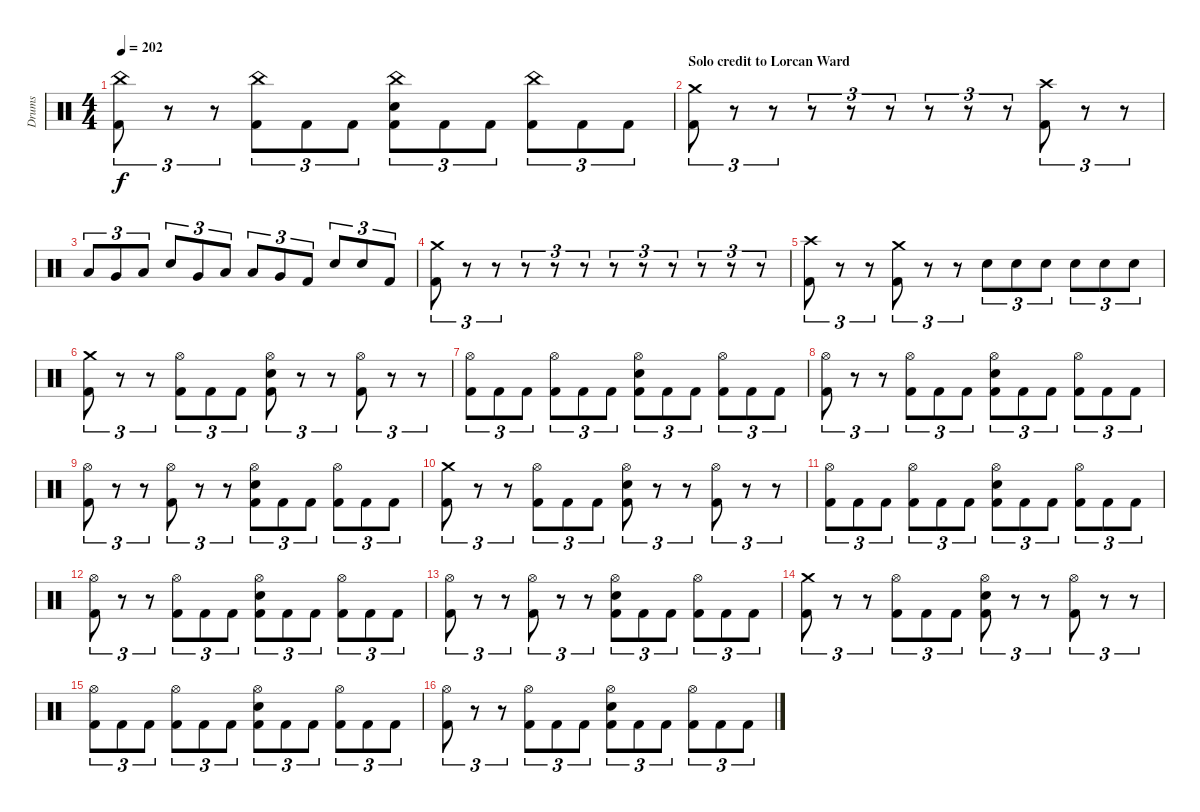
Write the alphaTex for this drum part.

\track ("Drums" "Drums") {instrument percussion}
\staff {score}
\articulation defaults
\ts (4 4)
\tempo 202
\clef neutral
\ks c
("China (hit)" "Kick (hit) 2").8{tu (3 2) dy f} r.8{tu (3 2)} r.8{tu (3 2)} ("China (hit)" "Kick (hit) 2").8{tu (3 2)} "Kick (hit) 2".8{tu (3 2)} "Kick (hit) 2".8{tu (3 2)} ("China (hit)" "Electric Snare (hit)" "Kick (hit) 2").8{tu (3 2)} "Kick (hit) 2".8{tu (3 2)} "Kick (hit) 2".8{tu (3 2)} ("China (hit)" "Kick (hit) 2").8{tu (3 2)} "Kick (hit) 2".8{tu (3 2)} "Kick (hit) 2".8{tu (3 2)} |
\section ("" "Solo credit to Lorcan Ward")
("Crash medium (hit)" "Kick (hit) 2").8{tu (3 2)} r.8{tu (3 2)} r.8{tu (3 2)} r.8{tu (3 2)} r.8{tu (3 2)} r.8{tu (3 2)} r.8{tu (3 2)} r.8{tu (3 2)} r.8{tu (3 2)} ("Crash high (hit)" "Kick (hit) 2").8{tu (3 2)} r.8{tu (3 2)} r.8{tu (3 2)} |
"Low Tom (hit)".8{tu (3 2)} "Very Low Tom (hit)".8{tu (3 2)} "Low Floor Tom (hit)".8{tu (3 2)} "Electric Snare (hit)".8{tu (3 2)} "Very Low Tom (hit)".8{tu (3 2)} "Low Floor Tom (hit)".8{tu (3 2)} "Low Tom (hit)".8{tu (3 2)} "Very Low Tom (hit)".8{tu (3 2)} "Kick (hit) 2".8{tu (3 2)} "Electric Snare (hit)".8{tu (3 2)} "Electric Snare (hit)".8{tu (3 2)} "Kick (hit) 2".8{tu (3 2)} |
("Crash medium (hit)" "Kick (hit) 2").8{tu (3 2)} r.8{tu (3 2)} r.8{tu (3 2)} r.8{tu (3 2)} r.8{tu (3 2)} r.8{tu (3 2)} r.8{tu (3 2)} r.8{tu (3 2)} r.8{tu (3 2)} r.8{tu (3 2)} r.8{tu (3 2)} r.8{tu (3 2)} |
("Crash high (hit)" "Kick (hit) 2").8{tu (3 2)} r.8{tu (3 2)} r.8{tu (3 2)} ("Crash medium (hit)" "Kick (hit) 2").8{tu (3 2)} r.8{tu (3 2)} r.8{tu (3 2)} "Electric Snare (hit)".8{tu (3 2)} "Electric Snare (hit)".8{tu (3 2)} "Electric Snare (hit)".8{tu (3 2)} "Electric Snare (hit)".8{tu (3 2)} "Electric Snare (hit)".8{tu (3 2)} "Electric Snare (hit)".8{tu (3 2)} |
("Crash medium (hit)" "Kick (hit) 2").8{tu (3 2)} r.8{tu (3 2)} r.8{tu (3 2)} ("Hi-Hat (open)" "Kick (hit) 2").8{tu (3 2)} "Kick (hit) 2".8{tu (3 2)} "Kick (hit) 2".8{tu (3 2)} ("Hi-Hat (open)" "Electric Snare (hit)" "Kick (hit) 2").8{tu (3 2)} r.8{tu (3 2)} r.8{tu (3 2)} ("Hi-Hat (open)" "Kick (hit) 2").8{tu (3 2)} r.8{tu (3 2)} r.8{tu (3 2)} |
("Hi-Hat (open)" "Kick (hit) 2").8{tu (3 2)} "Kick (hit) 2".8{tu (3 2)} "Kick (hit) 2".8{tu (3 2)} ("Hi-Hat (open)" "Kick (hit) 2").8{tu (3 2)} "Kick (hit) 2".8{tu (3 2)} "Kick (hit) 2".8{tu (3 2)} ("Hi-Hat (open)" "Electric Snare (hit)" "Kick (hit) 2").8{tu (3 2)} "Kick (hit) 2".8{tu (3 2)} "Kick (hit) 2".8{tu (3 2)} ("Hi-Hat (open)" "Kick (hit) 2").8{tu (3 2)} "Kick (hit) 2".8{tu (3 2)} "Kick (hit) 2".8{tu (3 2)} |
("Hi-Hat (open)" "Kick (hit) 2").8{tu (3 2)} r.8{tu (3 2)} r.8{tu (3 2)} ("Hi-Hat (open)" "Kick (hit) 2").8{tu (3 2)} "Kick (hit) 2".8{tu (3 2)} "Kick (hit) 2".8{tu (3 2)} ("Hi-Hat (open)" "Electric Snare (hit)" "Kick (hit) 2").8{tu (3 2)} "Kick (hit) 2".8{tu (3 2)} "Kick (hit) 2".8{tu (3 2)} ("Hi-Hat (open)" "Kick (hit) 2").8{tu (3 2)} "Kick (hit) 2".8{tu (3 2)} "Kick (hit) 2".8{tu (3 2)} |
("Hi-Hat (open)" "Kick (hit) 2").8{tu (3 2)} r.8{tu (3 2)} r.8{tu (3 2)} ("Hi-Hat (open)" "Kick (hit) 2").8{tu (3 2)} r.8{tu (3 2)} r.8{tu (3 2)} ("Hi-Hat (open)" "Electric Snare (hit)" "Kick (hit) 2").8{tu (3 2)} "Kick (hit) 2".8{tu (3 2)} "Kick (hit) 2".8{tu (3 2)} ("Hi-Hat (open)" "Kick (hit) 2").8{tu (3 2)} "Kick (hit) 2".8{tu (3 2)} "Kick (hit) 2".8{tu (3 2)} |
("Crash medium (hit)" "Kick (hit) 2").8{tu (3 2)} r.8{tu (3 2)} r.8{tu (3 2)} ("Hi-Hat (open)" "Kick (hit) 2").8{tu (3 2)} "Kick (hit) 2".8{tu (3 2)} "Kick (hit) 2".8{tu (3 2)} ("Hi-Hat (open)" "Electric Snare (hit)" "Kick (hit) 2").8{tu (3 2)} r.8{tu (3 2)} r.8{tu (3 2)} ("Hi-Hat (open)" "Kick (hit) 2").8{tu (3 2)} r.8{tu (3 2)} r.8{tu (3 2)} |
("Hi-Hat (open)" "Kick (hit) 2").8{tu (3 2)} "Kick (hit) 2".8{tu (3 2)} "Kick (hit) 2".8{tu (3 2)} ("Hi-Hat (open)" "Kick (hit) 2").8{tu (3 2)} "Kick (hit) 2".8{tu (3 2)} "Kick (hit) 2".8{tu (3 2)} ("Hi-Hat (open)" "Electric Snare (hit)" "Kick (hit) 2").8{tu (3 2)} "Kick (hit) 2".8{tu (3 2)} "Kick (hit) 2".8{tu (3 2)} ("Hi-Hat (open)" "Kick (hit) 2").8{tu (3 2)} "Kick (hit) 2".8{tu (3 2)} "Kick (hit) 2".8{tu (3 2)} |
("Hi-Hat (open)" "Kick (hit) 2").8{tu (3 2)} r.8{tu (3 2)} r.8{tu (3 2)} ("Hi-Hat (open)" "Kick (hit) 2").8{tu (3 2)} "Kick (hit) 2".8{tu (3 2)} "Kick (hit) 2".8{tu (3 2)} ("Hi-Hat (open)" "Electric Snare (hit)" "Kick (hit) 2").8{tu (3 2)} "Kick (hit) 2".8{tu (3 2)} "Kick (hit) 2".8{tu (3 2)} ("Hi-Hat (open)" "Kick (hit) 2").8{tu (3 2)} "Kick (hit) 2".8{tu (3 2)} "Kick (hit) 2".8{tu (3 2)} |
("Hi-Hat (open)" "Kick (hit) 2").8{tu (3 2)} r.8{tu (3 2)} r.8{tu (3 2)} ("Hi-Hat (open)" "Kick (hit) 2").8{tu (3 2)} r.8{tu (3 2)} r.8{tu (3 2)} ("Hi-Hat (open)" "Electric Snare (hit)" "Kick (hit) 2").8{tu (3 2)} "Kick (hit) 2".8{tu (3 2)} "Kick (hit) 2".8{tu (3 2)} ("Hi-Hat (open)" "Kick (hit) 2").8{tu (3 2)} "Kick (hit) 2".8{tu (3 2)} "Kick (hit) 2".8{tu (3 2)} |
("Crash medium (hit)" "Kick (hit) 2").8{tu (3 2)} r.8{tu (3 2)} r.8{tu (3 2)} ("Hi-Hat (open)" "Kick (hit) 2").8{tu (3 2)} "Kick (hit) 2".8{tu (3 2)} "Kick (hit) 2".8{tu (3 2)} ("Hi-Hat (open)" "Electric Snare (hit)" "Kick (hit) 2").8{tu (3 2)} r.8{tu (3 2)} r.8{tu (3 2)} ("Hi-Hat (open)" "Kick (hit) 2").8{tu (3 2)} r.8{tu (3 2)} r.8{tu (3 2)} |
("Hi-Hat (open)" "Kick (hit) 2").8{tu (3 2)} "Kick (hit) 2".8{tu (3 2)} "Kick (hit) 2".8{tu (3 2)} ("Hi-Hat (open)" "Kick (hit) 2").8{tu (3 2)} "Kick (hit) 2".8{tu (3 2)} "Kick (hit) 2".8{tu (3 2)} ("Hi-Hat (open)" "Electric Snare (hit)" "Kick (hit) 2").8{tu (3 2)} "Kick (hit) 2".8{tu (3 2)} "Kick (hit) 2".8{tu (3 2)} ("Hi-Hat (open)" "Kick (hit) 2").8{tu (3 2)} "Kick (hit) 2".8{tu (3 2)} "Kick (hit) 2".8{tu (3 2)} |
("Hi-Hat (open)" "Kick (hit) 2").8{tu (3 2)} r.8{tu (3 2)} r.8{tu (3 2)} ("Hi-Hat (open)" "Kick (hit) 2").8{tu (3 2)} "Kick (hit) 2".8{tu (3 2)} "Kick (hit) 2".8{tu (3 2)} ("Hi-Hat (open)" "Electric Snare (hit)" "Kick (hit) 2").8{tu (3 2)} "Kick (hit) 2".8{tu (3 2)} "Kick (hit) 2".8{tu (3 2)} ("Hi-Hat (open)" "Kick (hit) 2").8{tu (3 2)} "Kick (hit) 2".8{tu (3 2)} "Kick (hit) 2".8{tu (3 2)}
